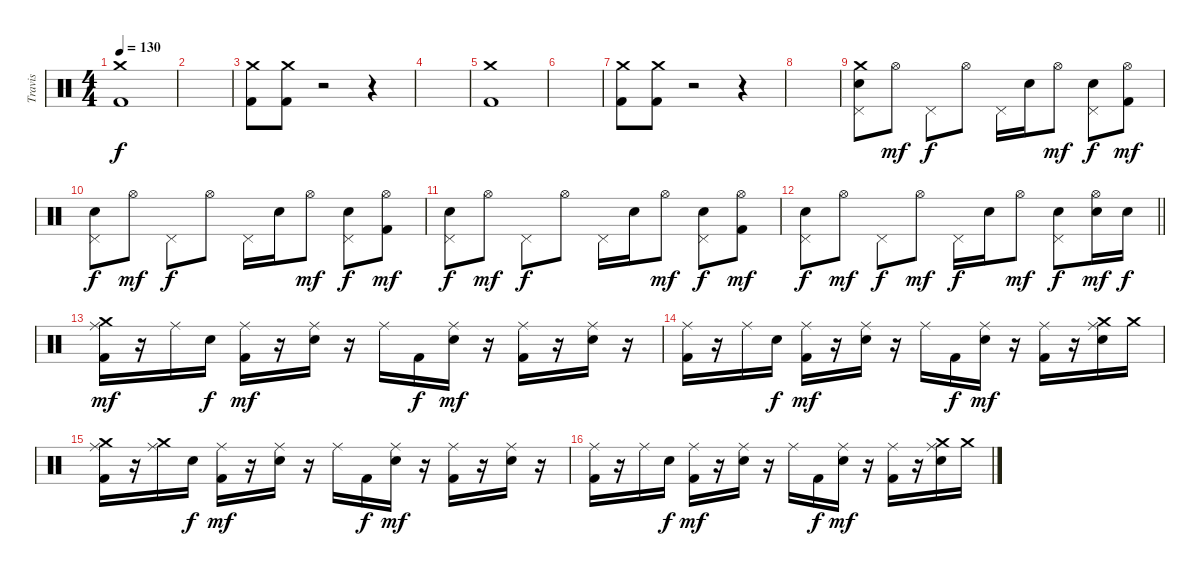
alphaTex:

\track ("Travis" "Travis") {instrument percussion}
\staff {score}
\articulation defaults
\ts (4 4)
\tempo 130
\clef neutral
\ks c
("Crash medium (hit)" "Kick (hit) 2").1{dy f} |
|
("Crash medium (hit)" "Kick (hit) 2").8 ("Crash medium (hit)" "Kick (hit) 2").8 r.2 r.4 |
|
("Crash medium (hit)" "Kick (hit) 2").1 |
|
("Crash medium (hit)" "Kick (hit) 2").8 ("Crash medium (hit)" "Kick (hit) 2").8 r.2 r.4 |
|
("Crash medium (hit)" "Pedal Hi-Hat (hit)" "Electric Snare (hit)").8 "Hi-Hat (open)".8{dy mf} "Pedal Hi-Hat (hit)".8{dy f} "Hi-Hat (open)".8 "Pedal Hi-Hat (hit)".16 "Electric Snare (hit)".16 "Hi-Hat (open)".8{dy mf} ("Pedal Hi-Hat (hit)" "Electric Snare (hit)").8{dy f} ("Hi-Hat (open)" "Kick (hit) 2").8{dy mf} |
("Pedal Hi-Hat (hit)" "Electric Snare (hit)").8{dy f} "Hi-Hat (open)".8{dy mf} "Pedal Hi-Hat (hit)".8{dy f} "Hi-Hat (open)".8 "Pedal Hi-Hat (hit)".16 "Electric Snare (hit)".16 "Hi-Hat (open)".8{dy mf} ("Pedal Hi-Hat (hit)" "Electric Snare (hit)").8{dy f} ("Hi-Hat (open)" "Kick (hit) 2").8{dy mf} |
("Pedal Hi-Hat (hit)" "Electric Snare (hit)").8{dy f} "Hi-Hat (open)".8{dy mf} "Pedal Hi-Hat (hit)".8{dy f} "Hi-Hat (open)".8 "Pedal Hi-Hat (hit)".16 "Electric Snare (hit)".16 "Hi-Hat (open)".8{dy mf} ("Pedal Hi-Hat (hit)" "Electric Snare (hit)").8{dy f} ("Hi-Hat (open)" "Kick (hit) 2").8{dy mf} |
\barLineRight lightlight
("Pedal Hi-Hat (hit)" "Electric Snare (hit)").8{dy f} "Hi-Hat (open)".8{dy mf} "Pedal Hi-Hat (hit)".8{dy f} "Hi-Hat (open)".8{dy mf} "Pedal Hi-Hat (hit)".16{dy f} "Electric Snare (hit)".16 "Hi-Hat (open)".8{dy mf} ("Pedal Hi-Hat (hit)" "Electric Snare (hit)").8{dy f} ("Hi-Hat (open)" "Electric Snare (hit)").16{dy mf} "Electric Snare (hit)".16{dy f} |
("Crash medium (hit)" "Ride (middle)" "Kick (hit) 2").16{dy mf} r.16 "Ride (middle)".16 "Electric Snare (hit)".16{dy f} ("Ride (middle)" "Kick (hit) 2").16{dy mf} r.16 ("Ride (middle)" "Electric Snare (hit)").16 r.16 "Ride (middle)".16 "Kick (hit) 2".16{dy f} ("Ride (middle)" "Electric Snare (hit)").16{dy mf} r.16 ("Ride (middle)" "Kick (hit) 2").16 r.16 ("Ride (middle)" "Electric Snare (hit)").16 r.16 |
("Ride (middle)" "Kick (hit) 2").16 r.16 "Ride (middle)".16 "Electric Snare (hit)".16{dy f} ("Ride (middle)" "Kick (hit) 2").16{dy mf} r.16 ("Ride (middle)" "Electric Snare (hit)").16 r.16 "Ride (middle)".16 "Kick (hit) 2".16{dy f} ("Ride (middle)" "Electric Snare (hit)").16{dy mf} r.16 ("Ride (middle)" "Kick (hit) 2").16 r.16 ("Crash medium (hit)" "Ride (middle)" "Electric Snare (hit)").16 "Crash medium (hit)".16 |
("Crash medium (hit)" "Ride (middle)" "Kick (hit) 2").16 r.16 ("Crash medium (hit)" "Ride (middle)").16 "Electric Snare (hit)".16{dy f} ("Ride (middle)" "Kick (hit) 2").16{dy mf} r.16 ("Ride (middle)" "Electric Snare (hit)").16 r.16 "Ride (middle)".16 "Kick (hit) 2".16{dy f} ("Ride (middle)" "Electric Snare (hit)").16{dy mf} r.16 ("Ride (middle)" "Kick (hit) 2").16 r.16 ("Ride (middle)" "Electric Snare (hit)").16 r.16 |
("Ride (middle)" "Kick (hit) 2").16 r.16 "Ride (middle)".16 "Electric Snare (hit)".16{dy f} ("Ride (middle)" "Kick (hit) 2").16{dy mf} r.16 ("Ride (middle)" "Electric Snare (hit)").16 r.16 "Ride (middle)".16 "Kick (hit) 2".16{dy f} ("Ride (middle)" "Electric Snare (hit)").16{dy mf} r.16 ("Ride (middle)" "Kick (hit) 2").16 r.16 ("Crash medium (hit)" "Ride (middle)" "Electric Snare (hit)").16 "Crash medium (hit)".16
